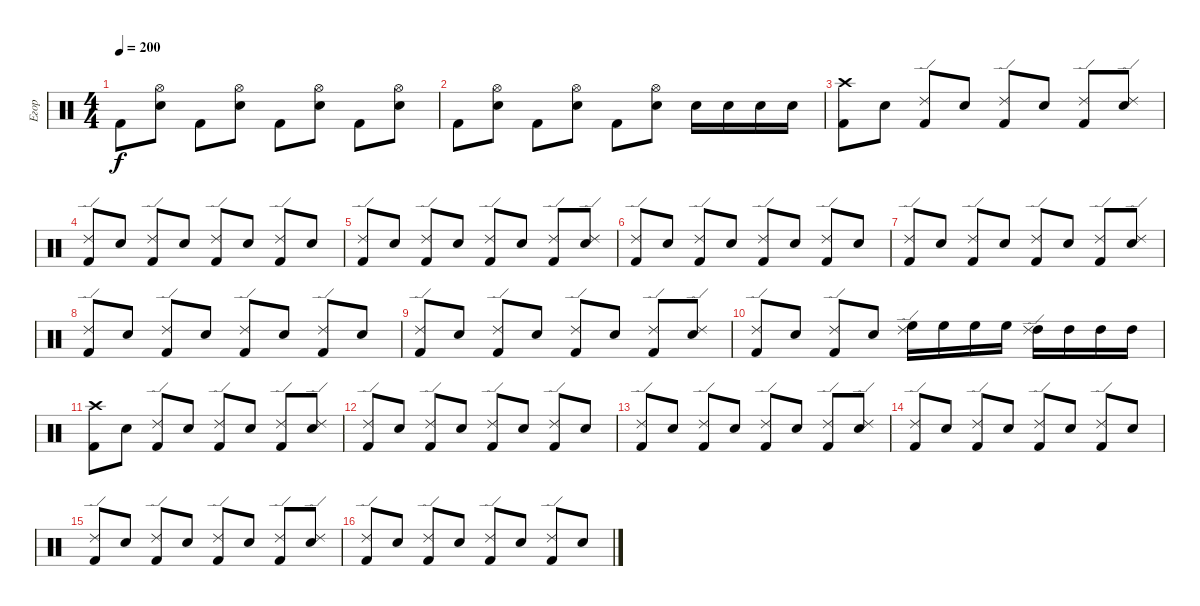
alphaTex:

\track ("Егор" "Егор") {instrument percussion}
\staff {score}
\articulation defaults
\ts (4 4)
\tempo 200
\clef neutral
\ks c "Kick (hit) 2".8{dy f}
("Snare (hit) 2" "Hi-Hat (open)").8 "Kick (hit) 2".8 ("Hi-Hat (open)" "Snare (hit) 2").8 "Kick (hit) 2".8 ("Hi-Hat (open)" "Snare (hit) 2").8 "Kick (hit) 2".8 ("Hi-Hat (open)" "Snare (hit) 2").8 |
"Kick (hit) 2".8 ("Hi-Hat (open)" "Snare (hit) 2").8 "Kick (hit) 2".8 ("Snare (hit) 2" "Hi-Hat (open)").8 "Kick (hit) 2".8 ("Snare (hit) 2" "Hi-Hat (open)").8 "Snare (hit) 2".16 "Snare (hit) 2".16 "Snare (hit) 2".16 "Snare (hit) 2".16 |
("Kick (hit) 2" "Crash high (hit)").8 "Snare (hit) 2".8 ("Kick (hit) 2" "Ride (edge) 2").8 "Snare (hit) 2".8 ("Kick (hit) 2" "Ride (edge) 2").8 "Snare (hit) 2".8 ("Kick (hit) 2" "Ride (edge) 2").8 ("Snare (hit) 2" "Ride (edge) 2").8 |
("Kick (hit) 2" "Ride (edge) 2").8 "Snare (hit) 2".8 ("Kick (hit) 2" "Ride (edge) 2").8 "Snare (hit) 2".8 ("Kick (hit) 2" "Ride (edge) 2").8 "Snare (hit) 2".8 ("Kick (hit) 2" "Ride (edge) 2").8 "Snare (hit) 2".8 |
("Kick (hit) 2" "Ride (edge) 2").8 "Snare (hit) 2".8 ("Kick (hit) 2" "Ride (edge) 2").8 "Snare (hit) 2".8 ("Kick (hit) 2" "Ride (edge) 2").8 "Snare (hit) 2".8 ("Kick (hit) 2" "Ride (edge) 2").8 ("Snare (hit) 2" "Ride (edge) 2").8 |
("Kick (hit) 2" "Ride (edge) 2").8 "Snare (hit) 2".8 ("Kick (hit) 2" "Ride (edge) 2").8 "Snare (hit) 2".8 ("Kick (hit) 2" "Ride (edge) 2").8 "Snare (hit) 2".8 ("Kick (hit) 2" "Ride (edge) 2").8 "Snare (hit) 2".8 |
("Kick (hit) 2" "Ride (edge) 2").8 "Snare (hit) 2".8 ("Kick (hit) 2" "Ride (edge) 2").8 "Snare (hit) 2".8 ("Kick (hit) 2" "Ride (edge) 2").8 "Snare (hit) 2".8 ("Kick (hit) 2" "Ride (edge) 2").8 ("Snare (hit) 2" "Ride (edge) 2").8 |
("Kick (hit) 2" "Ride (edge) 2").8 "Snare (hit) 2".8 ("Kick (hit) 2" "Ride (edge) 2").8 "Snare (hit) 2".8 ("Kick (hit) 2" "Ride (edge) 2").8 "Snare (hit) 2".8 ("Kick (hit) 2" "Ride (edge) 2").8 "Snare (hit) 2".8 |
("Kick (hit) 2" "Ride (edge) 2").8 "Snare (hit) 2".8 ("Kick (hit) 2" "Ride (edge) 2").8 "Snare (hit) 2".8 ("Kick (hit) 2" "Ride (edge) 2").8 "Snare (hit) 2".8 ("Kick (hit) 2" "Ride (edge) 2").8 ("Snare (hit) 2" "Ride (edge) 2").8 |
("Kick (hit) 2" "Ride (edge) 2").8 "Snare (hit) 2".8 ("Kick (hit) 2" "Ride (edge) 2").8 "Snare (hit) 2".8 ("High Floor Tom (hit)" "Ride (edge) 2").16 "High Floor Tom (hit)".16 "High Floor Tom (hit)".16 "High Floor Tom (hit)".16 ("High Tom (hit)" "Ride (edge) 2").16 "High Tom (hit)".16 "High Tom (hit)".16 "High Tom (hit)".16 |
("Kick (hit) 2" "Crash high (hit)").8 "Snare (hit) 2".8 ("Kick (hit) 2" "Ride (edge) 2").8 "Snare (hit) 2".8 ("Kick (hit) 2" "Ride (edge) 2").8 "Snare (hit) 2".8 ("Kick (hit) 2" "Ride (edge) 2").8 ("Snare (hit) 2" "Ride (edge) 2").8 |
("Kick (hit) 2" "Ride (edge) 2").8 "Snare (hit) 2".8 ("Kick (hit) 2" "Ride (edge) 2").8 "Snare (hit) 2".8 ("Kick (hit) 2" "Ride (edge) 2").8 "Snare (hit) 2".8 ("Kick (hit) 2" "Ride (edge) 2").8 "Snare (hit) 2".8 |
("Kick (hit) 2" "Ride (edge) 2").8 "Snare (hit) 2".8 ("Kick (hit) 2" "Ride (edge) 2").8 "Snare (hit) 2".8 ("Kick (hit) 2" "Ride (edge) 2").8 "Snare (hit) 2".8 ("Kick (hit) 2" "Ride (edge) 2").8 ("Snare (hit) 2" "Ride (edge) 2").8 |
("Kick (hit) 2" "Ride (edge) 2").8 "Snare (hit) 2".8 ("Kick (hit) 2" "Ride (edge) 2").8 "Snare (hit) 2".8 ("Kick (hit) 2" "Ride (edge) 2").8 "Snare (hit) 2".8 ("Kick (hit) 2" "Ride (edge) 2").8 "Snare (hit) 2".8 |
("Kick (hit) 2" "Ride (edge) 2").8 "Snare (hit) 2".8 ("Kick (hit) 2" "Ride (edge) 2").8 "Snare (hit) 2".8 ("Kick (hit) 2" "Ride (edge) 2").8 "Snare (hit) 2".8 ("Kick (hit) 2" "Ride (edge) 2").8 ("Snare (hit) 2" "Ride (edge) 2").8 |
("Kick (hit) 2" "Ride (edge) 2").8 "Snare (hit) 2".8 ("Kick (hit) 2" "Ride (edge) 2").8 "Snare (hit) 2".8 ("Kick (hit) 2" "Ride (edge) 2").8 "Snare (hit) 2".8 ("Kick (hit) 2" "Ride (edge) 2").8 "Snare (hit) 2".8
